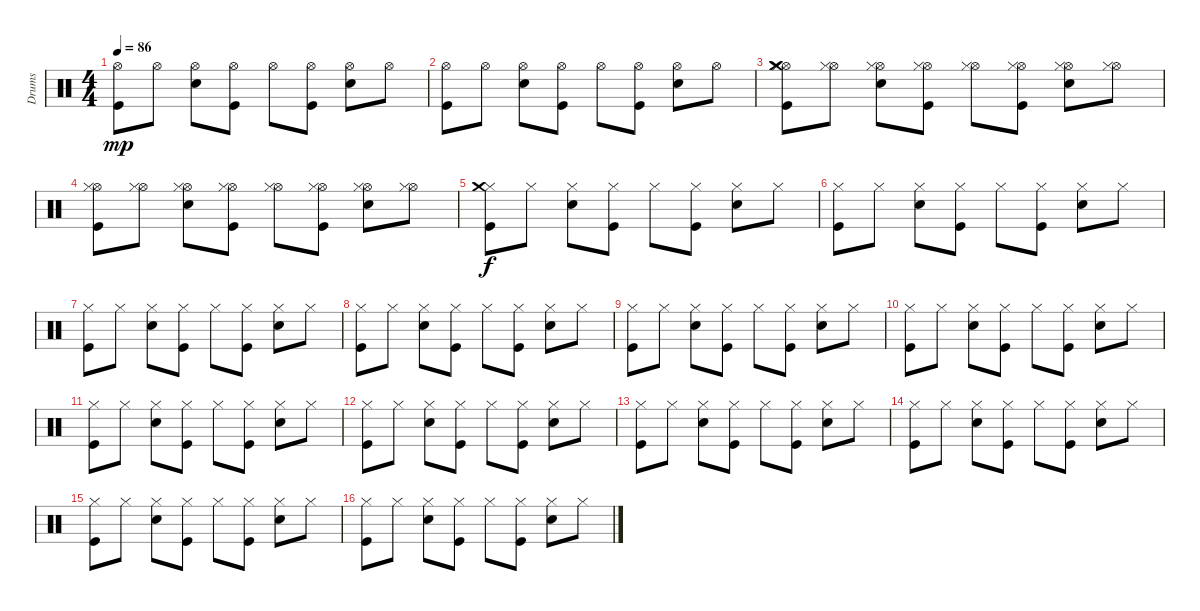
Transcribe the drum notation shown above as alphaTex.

\track ("Drums" "Drums") {instrument percussion}
\staff {score}
\articulation defaults
\ts (4 4)
\tempo 86
\clef neutral
\ks c
("Hi-Hat (open)" "Kick (hit)").8{dy mp} "Hi-Hat (open)".8 ("Hi-Hat (open)" "Snare (hit) 2").8 ("Hi-Hat (open)" "Kick (hit)").8 "Hi-Hat (open)".8 ("Hi-Hat (open)" "Kick (hit)").8 ("Hi-Hat (open)" "Snare (hit) 2").8 "Hi-Hat (open)".8 |
("Hi-Hat (open)" "Kick (hit)").8 "Hi-Hat (open)".8 ("Hi-Hat (open)" "Snare (hit) 2").8 ("Hi-Hat (open)" "Kick (hit)").8 "Hi-Hat (open)".8 ("Hi-Hat (open)" "Kick (hit)").8 ("Hi-Hat (open)" "Snare (hit) 2").8 "Hi-Hat (open)".8 |
("Hi-Hat (open)" "Kick (hit)" "Crash medium (hit)" "Hi-Hat (closed)").8 ("Hi-Hat (open)" "Hi-Hat (closed)").8 ("Hi-Hat (open)" "Snare (hit) 2" "Hi-Hat (closed)").8 ("Hi-Hat (open)" "Kick (hit)" "Hi-Hat (closed)").8 ("Hi-Hat (open)" "Hi-Hat (closed)").8 ("Hi-Hat (open)" "Kick (hit)" "Hi-Hat (closed)").8 ("Hi-Hat (open)" "Snare (hit) 2" "Hi-Hat (closed)").8 ("Hi-Hat (open)" "Hi-Hat (closed)").8 |
("Hi-Hat (open)" "Kick (hit)" "Hi-Hat (closed)").8 ("Hi-Hat (open)" "Hi-Hat (closed)").8 ("Hi-Hat (open)" "Snare (hit) 2" "Hi-Hat (closed)").8 ("Hi-Hat (open)" "Kick (hit)" "Hi-Hat (closed)").8 ("Hi-Hat (open)" "Hi-Hat (closed)").8 ("Hi-Hat (open)" "Kick (hit)" "Hi-Hat (closed)").8 ("Hi-Hat (open)" "Snare (hit) 2" "Hi-Hat (closed)").8 ("Hi-Hat (open)" "Hi-Hat (closed)").8 |
("Hi-Hat (closed)" "Kick (hit)" "Crash medium (hit)").8{dy f} "Hi-Hat (closed)".8 ("Hi-Hat (closed)" "Snare (hit) 2").8 ("Hi-Hat (closed)" "Kick (hit)").8 "Hi-Hat (closed)".8 ("Hi-Hat (closed)" "Kick (hit)").8 ("Hi-Hat (closed)" "Snare (hit) 2").8 "Hi-Hat (closed)".8 |
("Hi-Hat (closed)" "Kick (hit)").8 "Hi-Hat (closed)".8 ("Hi-Hat (closed)" "Snare (hit) 2").8 ("Hi-Hat (closed)" "Kick (hit)").8 "Hi-Hat (closed)".8 ("Hi-Hat (closed)" "Kick (hit)").8 ("Hi-Hat (closed)" "Snare (hit) 2").8 "Hi-Hat (closed)".8 |
("Hi-Hat (closed)" "Kick (hit)").8 "Hi-Hat (closed)".8 ("Hi-Hat (closed)" "Snare (hit) 2").8 ("Hi-Hat (closed)" "Kick (hit)").8 "Hi-Hat (closed)".8 ("Hi-Hat (closed)" "Kick (hit)").8 ("Hi-Hat (closed)" "Snare (hit) 2").8 "Hi-Hat (closed)".8 |
("Hi-Hat (closed)" "Kick (hit)").8 "Hi-Hat (closed)".8 ("Hi-Hat (closed)" "Snare (hit) 2").8 ("Hi-Hat (closed)" "Kick (hit)").8 "Hi-Hat (closed)".8 ("Hi-Hat (closed)" "Kick (hit)").8 ("Hi-Hat (closed)" "Snare (hit) 2").8 "Hi-Hat (closed)".8 |
("Hi-Hat (closed)" "Kick (hit)").8 "Hi-Hat (closed)".8 ("Hi-Hat (closed)" "Snare (hit) 2").8 ("Hi-Hat (closed)" "Kick (hit)").8 "Hi-Hat (closed)".8 ("Hi-Hat (closed)" "Kick (hit)").8 ("Hi-Hat (closed)" "Snare (hit) 2").8 "Hi-Hat (closed)".8 |
("Hi-Hat (closed)" "Kick (hit)").8 "Hi-Hat (closed)".8 ("Hi-Hat (closed)" "Snare (hit) 2").8 ("Hi-Hat (closed)" "Kick (hit)").8 "Hi-Hat (closed)".8 ("Hi-Hat (closed)" "Kick (hit)").8 ("Hi-Hat (closed)" "Snare (hit) 2").8 "Hi-Hat (closed)".8 |
("Hi-Hat (closed)" "Kick (hit)").8 "Hi-Hat (closed)".8 ("Hi-Hat (closed)" "Snare (hit) 2").8 ("Hi-Hat (closed)" "Kick (hit)").8 "Hi-Hat (closed)".8 ("Hi-Hat (closed)" "Kick (hit)").8 ("Hi-Hat (closed)" "Snare (hit) 2").8 "Hi-Hat (closed)".8 |
("Hi-Hat (closed)" "Kick (hit)").8 "Hi-Hat (closed)".8 ("Hi-Hat (closed)" "Snare (hit) 2").8 ("Hi-Hat (closed)" "Kick (hit)").8 "Hi-Hat (closed)".8 ("Hi-Hat (closed)" "Kick (hit)").8 ("Hi-Hat (closed)" "Snare (hit) 2").8 "Hi-Hat (closed)".8 |
("Hi-Hat (closed)" "Kick (hit)").8 "Hi-Hat (closed)".8 ("Hi-Hat (closed)" "Snare (hit) 2").8 ("Hi-Hat (closed)" "Kick (hit)").8 "Hi-Hat (closed)".8 ("Hi-Hat (closed)" "Kick (hit)").8 ("Hi-Hat (closed)" "Snare (hit) 2").8 "Hi-Hat (closed)".8 |
("Hi-Hat (closed)" "Kick (hit)").8 "Hi-Hat (closed)".8 ("Hi-Hat (closed)" "Snare (hit) 2").8 ("Hi-Hat (closed)" "Kick (hit)").8 "Hi-Hat (closed)".8 ("Hi-Hat (closed)" "Kick (hit)").8 ("Hi-Hat (closed)" "Snare (hit) 2").8 "Hi-Hat (closed)".8 |
("Hi-Hat (closed)" "Kick (hit)").8 "Hi-Hat (closed)".8 ("Hi-Hat (closed)" "Snare (hit) 2").8 ("Hi-Hat (closed)" "Kick (hit)").8 "Hi-Hat (closed)".8 ("Hi-Hat (closed)" "Kick (hit)").8 ("Hi-Hat (closed)" "Snare (hit) 2").8 "Hi-Hat (closed)".8 |
("Hi-Hat (closed)" "Kick (hit)").8 "Hi-Hat (closed)".8 ("Hi-Hat (closed)" "Snare (hit) 2").8 ("Hi-Hat (closed)" "Kick (hit)").8 "Hi-Hat (closed)".8 ("Hi-Hat (closed)" "Kick (hit)").8 ("Hi-Hat (closed)" "Snare (hit) 2").8 "Hi-Hat (closed)".8
